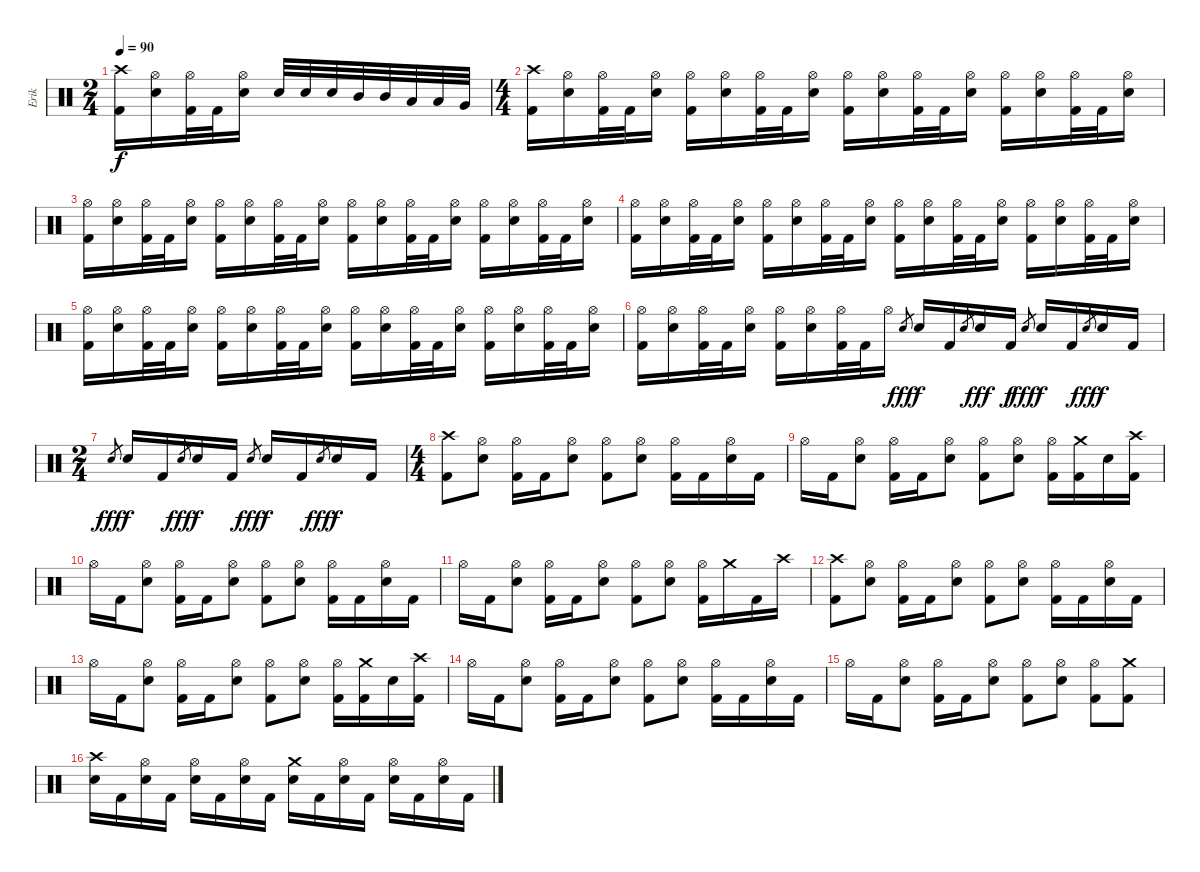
\track ("Erik" "Erik") {instrument percussion}
\staff {score}
\articulation defaults
\ts (2 4)
\tempo 90
\clef neutral
\ks c
("Crash high (hit)" "Kick (hit) 2").16{dy f} ("Hi-Hat (open)" "Electric Snare (hit)").16 ("Hi-Hat (open)" "Kick (hit) 2").32 "Kick (hit) 2".32 ("Hi-Hat (open)" "Electric Snare (hit)").16 "Electric Snare (hit)".32 "Electric Snare (hit)".32 "Electric Snare (hit)".32 "Mid Tom (hit)".32 "Mid Tom (hit)".32 "Low Tom (hit)".32 "Low Tom (hit)".32 "Very Low Tom (hit)".32 |
\ts (4 4)
("Crash high (hit)" "Kick (hit) 2").16 ("Hi-Hat (open)" "Electric Snare (hit)").16 ("Hi-Hat (open)" "Kick (hit) 2").32 "Kick (hit) 2".32 ("Hi-Hat (open)" "Electric Snare (hit)").16 ("Hi-Hat (open)" "Kick (hit) 2").16 ("Hi-Hat (open)" "Electric Snare (hit)").16 ("Hi-Hat (open)" "Kick (hit) 2").32 "Kick (hit) 2".32 ("Hi-Hat (open)" "Electric Snare (hit)").16 ("Hi-Hat (open)" "Kick (hit) 2").16 ("Hi-Hat (open)" "Electric Snare (hit)").16 ("Hi-Hat (open)" "Kick (hit) 2").32 "Kick (hit) 2".32 ("Hi-Hat (open)" "Electric Snare (hit)").16 ("Hi-Hat (open)" "Kick (hit) 2").16 ("Hi-Hat (open)" "Electric Snare (hit)").16 ("Hi-Hat (open)" "Kick (hit) 2").32 "Kick (hit) 2".32 ("Hi-Hat (open)" "Electric Snare (hit)").16 |
("Hi-Hat (open)" "Kick (hit) 2").16 ("Hi-Hat (open)" "Electric Snare (hit)").16 ("Hi-Hat (open)" "Kick (hit) 2").32 "Kick (hit) 2".32 ("Hi-Hat (open)" "Electric Snare (hit)").16 ("Hi-Hat (open)" "Kick (hit) 2").16 ("Hi-Hat (open)" "Electric Snare (hit)").16 ("Hi-Hat (open)" "Kick (hit) 2").32 "Kick (hit) 2".32 ("Hi-Hat (open)" "Electric Snare (hit)").16 ("Hi-Hat (open)" "Kick (hit) 2").16 ("Hi-Hat (open)" "Electric Snare (hit)").16 ("Hi-Hat (open)" "Kick (hit) 2").32 "Kick (hit) 2".32 ("Hi-Hat (open)" "Electric Snare (hit)").16 ("Hi-Hat (open)" "Kick (hit) 2").16 ("Hi-Hat (open)" "Electric Snare (hit)").16 ("Hi-Hat (open)" "Kick (hit) 2").32 "Kick (hit) 2".32 ("Hi-Hat (open)" "Electric Snare (hit)").16 |
("Hi-Hat (open)" "Kick (hit) 2").16 ("Hi-Hat (open)" "Electric Snare (hit)").16 ("Hi-Hat (open)" "Kick (hit) 2").32 "Kick (hit) 2".32 ("Hi-Hat (open)" "Electric Snare (hit)").16 ("Hi-Hat (open)" "Kick (hit) 2").16 ("Hi-Hat (open)" "Electric Snare (hit)").16 ("Hi-Hat (open)" "Kick (hit) 2").32 "Kick (hit) 2".32 ("Hi-Hat (open)" "Electric Snare (hit)").16 ("Hi-Hat (open)" "Kick (hit) 2").16 ("Hi-Hat (open)" "Electric Snare (hit)").16 ("Hi-Hat (open)" "Kick (hit) 2").32 "Kick (hit) 2".32 ("Hi-Hat (open)" "Electric Snare (hit)").16 ("Hi-Hat (open)" "Kick (hit) 2").16 ("Hi-Hat (open)" "Electric Snare (hit)").16 ("Hi-Hat (open)" "Kick (hit) 2").32 "Kick (hit) 2".32 ("Hi-Hat (open)" "Electric Snare (hit)").16 |
("Hi-Hat (open)" "Kick (hit) 2").16 ("Hi-Hat (open)" "Electric Snare (hit)").16 ("Hi-Hat (open)" "Kick (hit) 2").32 "Kick (hit) 2".32 ("Hi-Hat (open)" "Electric Snare (hit)").16 ("Hi-Hat (open)" "Kick (hit) 2").16 ("Hi-Hat (open)" "Electric Snare (hit)").16 ("Hi-Hat (open)" "Kick (hit) 2").32 "Kick (hit) 2".32 ("Hi-Hat (open)" "Electric Snare (hit)").16 ("Hi-Hat (open)" "Kick (hit) 2").16 ("Hi-Hat (open)" "Electric Snare (hit)").16 ("Hi-Hat (open)" "Kick (hit) 2").32 "Kick (hit) 2".32 ("Hi-Hat (open)" "Electric Snare (hit)").16 ("Hi-Hat (open)" "Kick (hit) 2").16 ("Hi-Hat (open)" "Electric Snare (hit)").16 ("Hi-Hat (open)" "Kick (hit) 2").32 "Kick (hit) 2".32 ("Hi-Hat (open)" "Electric Snare (hit)").16 |
("Hi-Hat (open)" "Kick (hit) 2").16 ("Hi-Hat (open)" "Electric Snare (hit)").16 ("Hi-Hat (open)" "Kick (hit) 2").32 "Kick (hit) 2".32 ("Hi-Hat (open)" "Electric Snare (hit)").16 ("Hi-Hat (open)" "Kick (hit) 2").16 ("Hi-Hat (open)" "Electric Snare (hit)").16 ("Hi-Hat (open)" "Kick (hit) 2").32 "Kick (hit) 2".32 "Hi-Hat (open)".16 "Electric Snare (hit)".8{gr dy fff} "Electric Snare (hit)".16{dy f} "Kick (hit) 2".16 "Electric Snare (hit)".8{gr} "Electric Snare (hit)".16{dy fff} "Kick (hit) 2".16{dy f} "Electric Snare (hit)".8{gr dy fff} "Electric Snare (hit)".16{dy f} "Kick (hit) 2".16 "Electric Snare (hit)".8{gr dy fff} "Electric Snare (hit)".16{dy f} "Kick (hit) 2".16 |
\ts (2 4)
"Electric Snare (hit)".8{gr dy fff} "Electric Snare (hit)".16{dy f} "Kick (hit) 2".16 "Electric Snare (hit)".8{gr dy fff} "Electric Snare (hit)".16{dy f} "Kick (hit) 2".16 "Electric Snare (hit)".8{gr dy fff} "Electric Snare (hit)".16{dy f} "Kick (hit) 2".16 "Electric Snare (hit)".8{gr dy fff} "Electric Snare (hit)".16{dy f} "Kick (hit) 2".16 |
\ts (4 4)
("Crash high (hit)" "Kick (hit) 2").8 ("Hi-Hat (open)" "Electric Snare (hit)").8 ("Hi-Hat (open)" "Kick (hit) 2").16 "Kick (hit) 2".16 ("Hi-Hat (open)" "Electric Snare (hit)").8 ("Hi-Hat (open)" "Kick (hit) 2").8 ("Hi-Hat (open)" "Electric Snare (hit)").8 ("Hi-Hat (open)" "Kick (hit) 2").16 "Kick (hit) 2".16 ("Hi-Hat (open)" "Electric Snare (hit)").16 "Kick (hit) 2".16 |
"Hi-Hat (open)".16 "Kick (hit) 2".16 ("Hi-Hat (open)" "Electric Snare (hit)").8 ("Hi-Hat (open)" "Kick (hit) 2").16 "Kick (hit) 2".16 ("Hi-Hat (open)" "Electric Snare (hit)").8 ("Hi-Hat (open)" "Kick (hit) 2").8 ("Hi-Hat (open)" "Electric Snare (hit)").8 ("Hi-Hat (open)" "Kick (hit) 2").16 ("Crash medium (hit)" "Kick (hit) 2").16 "Electric Snare (hit)".16 ("Crash high (hit)" "Kick (hit) 2").16 |
"Hi-Hat (open)".16 "Kick (hit) 2".16 ("Hi-Hat (open)" "Electric Snare (hit)").8 ("Hi-Hat (open)" "Kick (hit) 2").16 "Kick (hit) 2".16 ("Hi-Hat (open)" "Electric Snare (hit)").8 ("Hi-Hat (open)" "Kick (hit) 2").8 ("Hi-Hat (open)" "Electric Snare (hit)").8 ("Hi-Hat (open)" "Kick (hit) 2").16 "Kick (hit) 2".16 ("Hi-Hat (open)" "Electric Snare (hit)").16 "Kick (hit) 2".16 |
"Hi-Hat (open)".16 "Kick (hit) 2".16 ("Hi-Hat (open)" "Electric Snare (hit)").8 ("Hi-Hat (open)" "Kick (hit) 2").16 "Kick (hit) 2".16 ("Hi-Hat (open)" "Electric Snare (hit)").8 ("Hi-Hat (open)" "Kick (hit) 2").8 ("Hi-Hat (open)" "Electric Snare (hit)").8 ("Hi-Hat (open)" "Kick (hit) 2").16 "Crash medium (hit)".16 "Kick (hit) 2".16 "Crash high (hit)".16 |
("Crash high (hit)" "Kick (hit) 2").8 ("Hi-Hat (open)" "Electric Snare (hit)").8 ("Hi-Hat (open)" "Kick (hit) 2").16 "Kick (hit) 2".16 ("Hi-Hat (open)" "Electric Snare (hit)").8 ("Hi-Hat (open)" "Kick (hit) 2").8 ("Hi-Hat (open)" "Electric Snare (hit)").8 ("Hi-Hat (open)" "Kick (hit) 2").16 "Kick (hit) 2".16 ("Hi-Hat (open)" "Electric Snare (hit)").16 "Kick (hit) 2".16 |
"Hi-Hat (open)".16 "Kick (hit) 2".16 ("Hi-Hat (open)" "Electric Snare (hit)").8 ("Hi-Hat (open)" "Kick (hit) 2").16 "Kick (hit) 2".16 ("Hi-Hat (open)" "Electric Snare (hit)").8 ("Hi-Hat (open)" "Kick (hit) 2").8 ("Hi-Hat (open)" "Electric Snare (hit)").8 ("Hi-Hat (open)" "Kick (hit) 2").16 ("Crash medium (hit)" "Kick (hit) 2").16 "Electric Snare (hit)".16 ("Crash high (hit)" "Kick (hit) 2").16 |
"Hi-Hat (open)".16 "Kick (hit) 2".16 ("Hi-Hat (open)" "Electric Snare (hit)").8 ("Hi-Hat (open)" "Kick (hit) 2").16 "Kick (hit) 2".16 ("Hi-Hat (open)" "Electric Snare (hit)").8 ("Hi-Hat (open)" "Kick (hit) 2").8 ("Hi-Hat (open)" "Electric Snare (hit)").8 ("Hi-Hat (open)" "Kick (hit) 2").16 "Kick (hit) 2".16 ("Hi-Hat (open)" "Electric Snare (hit)").16 "Kick (hit) 2".16 |
"Hi-Hat (open)".16 "Kick (hit) 2".16 ("Hi-Hat (open)" "Electric Snare (hit)").8 ("Hi-Hat (open)" "Kick (hit) 2").16 "Kick (hit) 2".16 ("Hi-Hat (open)" "Electric Snare (hit)").8 ("Hi-Hat (open)" "Kick (hit) 2").8 ("Hi-Hat (open)" "Electric Snare (hit)").8 ("Hi-Hat (open)" "Kick (hit) 2").8 ("Crash medium (hit)" "Kick (hit) 2").8 |
("Crash high (hit)" "Electric Snare (hit)").16 "Kick (hit) 2".16 ("Hi-Hat (open)" "Electric Snare (hit)").16 "Kick (hit) 2".16 ("Hi-Hat (open)" "Electric Snare (hit)").16 "Kick (hit) 2".16 ("Hi-Hat (open)" "Electric Snare (hit)").16 "Kick (hit) 2".16 ("Crash medium (hit)" "Electric Snare (hit)").16 "Kick (hit) 2".16 ("Hi-Hat (open)" "Electric Snare (hit)").16 "Kick (hit) 2".16 ("Hi-Hat (open)" "Electric Snare (hit)").16 "Kick (hit) 2".16 ("Hi-Hat (open)" "Electric Snare (hit)").16 "Kick (hit) 2".16
